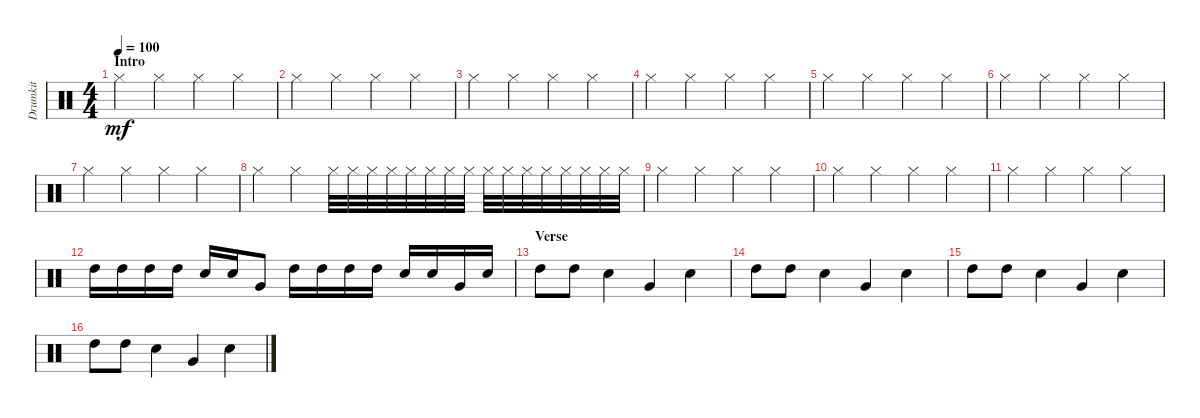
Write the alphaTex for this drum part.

\track ("Drumkit" "Drumkit") {instrument percussion}
\staff {score}
\articulation defaults
\ts (4 4)
\section ("" "Intro")
\tempo 100
\clef neutral
\ks c "Hi-Hat (closed)".4{dy mf} "Hi-Hat (closed)".4 "Hi-Hat (closed)".4 "Hi-Hat (closed)".4
|
"Hi-Hat (closed)".4 "Hi-Hat (closed)".4 "Hi-Hat (closed)".4 "Hi-Hat (closed)".4 |
"Hi-Hat (closed)".4 "Hi-Hat (closed)".4 "Hi-Hat (closed)".4 "Hi-Hat (closed)".4 |
"Hi-Hat (closed)".4 "Hi-Hat (closed)".4 "Hi-Hat (closed)".4 "Hi-Hat (closed)".4 |
"Hi-Hat (closed)".4 "Hi-Hat (closed)".4 "Hi-Hat (closed)".4 "Hi-Hat (closed)".4 |
"Hi-Hat (closed)".4 "Hi-Hat (closed)".4 "Hi-Hat (closed)".4 "Hi-Hat (closed)".4 |
"Hi-Hat (closed)".4 "Hi-Hat (closed)".4 "Hi-Hat (closed)".4 "Hi-Hat (closed)".4 |
"Hi-Hat (closed)".4 "Hi-Hat (closed)".4 "Hi-Hat (closed)".32 "Hi-Hat (closed)".32 "Hi-Hat (closed)".32 "Hi-Hat (closed)".32 "Hi-Hat (closed)".32 "Hi-Hat (closed)".32 "Hi-Hat (closed)".32 "Hi-Hat (closed)".32 "Hi-Hat (closed)".32 "Hi-Hat (closed)".32 "Hi-Hat (closed)".32 "Hi-Hat (closed)".32 "Hi-Hat (closed)".32 "Hi-Hat (closed)".32 "Hi-Hat (closed)".32 "Hi-Hat (closed)".32 |
"Hi-Hat (closed)".4 "Hi-Hat (closed)".4 "Hi-Hat (closed)".4 "Hi-Hat (closed)".4 |
"Hi-Hat (closed)".4 "Hi-Hat (closed)".4 "Hi-Hat (closed)".4 "Hi-Hat (closed)".4 |
"Hi-Hat (closed)".4 "Hi-Hat (closed)".4 "Hi-Hat (closed)".4 "Hi-Hat (closed)".4 |
"High Tom (hit)".16 "High Tom (hit)".16 "High Tom (hit)".16 "High Tom (hit)".16 "Snare (hit) 2".16 "Snare (hit) 2".16 "Very Low Tom (hit)".8 "High Tom (hit)".16 "High Tom (hit)".16 "High Tom (hit)".16 "High Tom (hit)".16 "Snare (hit) 2".16 "Snare (hit) 2".16 "Very Low Tom (hit)".16 "Snare (hit) 2".16 |
\section ("" "Verse")
"High Tom (hit)".8 "High Tom (hit)".8 "Snare (hit) 2".4 "Very Low Tom (hit)".4 "Snare (hit) 2".4 |
"High Tom (hit)".8 "High Tom (hit)".8 "Snare (hit) 2".4 "Very Low Tom (hit)".4 "Snare (hit) 2".4 |
"High Tom (hit)".8 "High Tom (hit)".8 "Snare (hit) 2".4 "Very Low Tom (hit)".4 "Snare (hit) 2".4 |
"High Tom (hit)".8 "High Tom (hit)".8 "Snare (hit) 2".4 "Very Low Tom (hit)".4 "Snare (hit) 2".4
